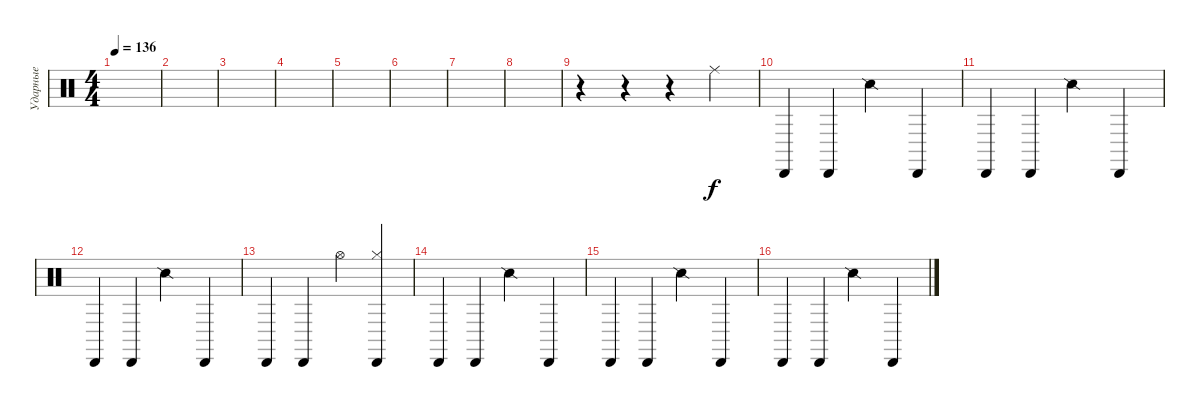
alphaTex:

\track ("Ударные" "Ударные") {instrument percussion}
\staff {score}
\articulation defaults
\ts (4 4)
\tempo 136
\clef neutral
\ks c
|
|
|
|
|
|
|
|
r.4 r.4 r.4 "Ride (middle)".4 |
"Cabasa (hit)".4 "Cabasa (hit)".4 "Snare (side stick) 2".4 "Cabasa (hit)".4 |
"Cabasa (hit)".4 "Cabasa (hit)".4 "Snare (side stick) 2".4 "Cabasa (hit)".4 |
"Cabasa (hit)".4 "Cabasa (hit)".4 "Snare (side stick) 2".4 "Cabasa (hit)".4 |
"Cabasa (hit)".4 "Cabasa (hit)".4 "Hi-Hat (open)".4 ("Hi-Hat (closed)" "Cabasa (hit)").4 |
"Cabasa (hit)".4 "Cabasa (hit)".4 "Snare (side stick) 2".4 "Cabasa (hit)".4 |
"Cabasa (hit)".4 "Cabasa (hit)".4 "Snare (side stick) 2".4 "Cabasa (hit)".4 |
"Cabasa (hit)".4 "Cabasa (hit)".4 "Snare (side stick) 2".4 "Cabasa (hit)".4
